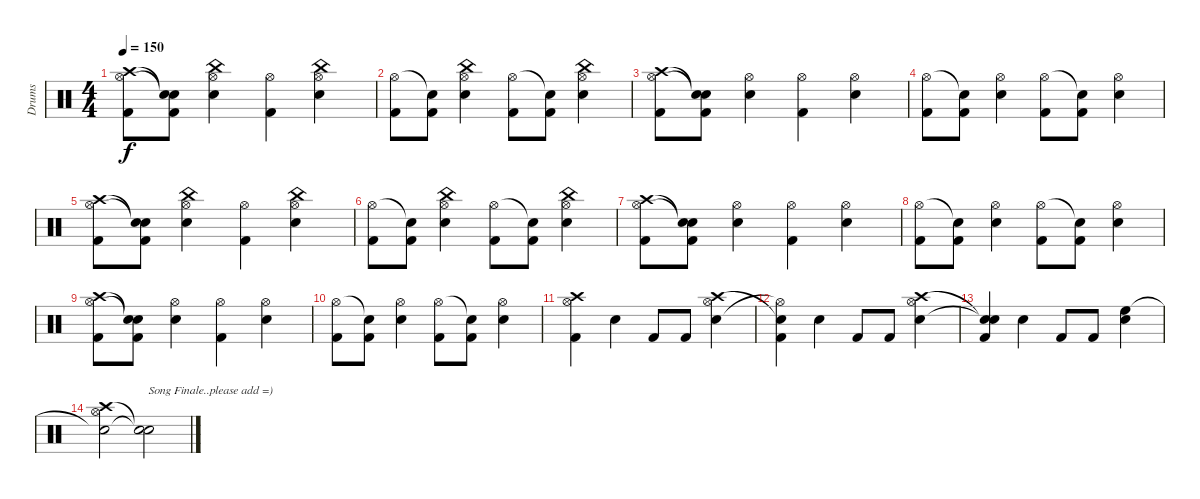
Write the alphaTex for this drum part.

\track ("Drums" "Drums") {instrument percussion}
\staff {score}
\articulation defaults
\ts (4 4)
\tempo 150
\clef neutral
\ks c
("Crash high (hit)" "Hi-Hat (open)" "Kick (hit) 2").8{dy f} ("Snare (hit)"{t} "Snare (hit)"{t} "Kick (hit) 2").8 ("Snare (hit) 2" "Hi-Hat (open)" "China (hit)").4 ("Hi-Hat (open)" "Kick (hit) 2").4 ("Snare (hit) 2" "Hi-Hat (open)" "China (hit)").4 |
("Hi-Hat (open)" "Kick (hit) 2").8 ("Snare (hit)"{t} "Kick (hit) 2").8 ("Snare (hit) 2" "Hi-Hat (open)" "China (hit)").4 ("Hi-Hat (open)" "Kick (hit) 2").8 ("Snare (hit)"{t} "Kick (hit) 2").8 ("Snare (hit) 2" "Hi-Hat (open)" "China (hit)").4 |
("Crash high (hit)" "Hi-Hat (open)" "Kick (hit) 2").8 ("Snare (hit)"{t} "Snare (hit)"{t} "Kick (hit) 2").8 ("Snare (hit) 2" "Hi-Hat (open)").4 ("Hi-Hat (open)" "Kick (hit) 2").4 ("Snare (hit) 2" "Hi-Hat (open)").4 |
("Hi-Hat (open)" "Kick (hit) 2").8 ("Snare (hit)"{t} "Kick (hit) 2").8 ("Snare (hit) 2" "Hi-Hat (open)").4 ("Hi-Hat (open)" "Kick (hit) 2").8 ("Snare (hit)"{t} "Kick (hit) 2").8 ("Snare (hit) 2" "Hi-Hat (open)").4 |
("Crash high (hit)" "Hi-Hat (open)" "Kick (hit) 2").8 ("Snare (hit)"{t} "Snare (hit)"{t} "Kick (hit) 2").8 ("Snare (hit) 2" "Hi-Hat (open)" "China (hit)").4 ("Hi-Hat (open)" "Kick (hit) 2").4 ("Snare (hit) 2" "Hi-Hat (open)" "China (hit)").4 |
("Hi-Hat (open)" "Kick (hit) 2").8 ("Snare (hit)"{t} "Kick (hit) 2").8 ("Snare (hit) 2" "Hi-Hat (open)" "China (hit)").4 ("Hi-Hat (open)" "Kick (hit) 2").8 ("Snare (hit)"{t} "Kick (hit) 2").8 ("Snare (hit) 2" "Hi-Hat (open)" "China (hit)").4 |
("Crash high (hit)" "Hi-Hat (open)" "Kick (hit) 2").8 ("Snare (hit)"{t} "Snare (hit)"{t} "Kick (hit) 2").8 ("Snare (hit) 2" "Hi-Hat (open)").4 ("Hi-Hat (open)" "Kick (hit) 2").4 ("Snare (hit) 2" "Hi-Hat (open)").4 |
("Hi-Hat (open)" "Kick (hit) 2").8 ("Snare (hit)"{t} "Kick (hit) 2").8 ("Snare (hit) 2" "Hi-Hat (open)").4 ("Hi-Hat (open)" "Kick (hit) 2").8 ("Snare (hit)"{t} "Kick (hit) 2").8 ("Snare (hit) 2" "Hi-Hat (open)").4 |
("Crash high (hit)" "Hi-Hat (open)" "Kick (hit) 2").8 ("Snare (hit)"{t} "Snare (hit)"{t} "Kick (hit) 2").8 ("Snare (hit) 2" "Hi-Hat (open)").4 ("Hi-Hat (open)" "Kick (hit) 2").4 ("Snare (hit) 2" "Hi-Hat (open)").4 |
("Hi-Hat (open)" "Kick (hit) 2").8 ("Snare (hit)"{t} "Kick (hit) 2").8 ("Snare (hit) 2" "Hi-Hat (open)").4 ("Hi-Hat (open)" "Kick (hit) 2").8 ("Snare (hit)"{t} "Kick (hit) 2").8 ("Snare (hit) 2" "Hi-Hat (open)").4 |
("Crash high (hit)" "Hi-Hat (open)" "Kick (hit) 2").4 "Snare (hit) 2".4 "Kick (hit) 2".8 "Kick (hit) 2".8 ("Crash high (hit)" "Snare (hit) 2" "Hi-Hat (open)").4 |
("Snare (hit)"{t} "Hi-Hat (open)"{t} "Kick (hit) 2").4 "Snare (hit) 2".4 "Kick (hit) 2".8 "Kick (hit) 2".8 ("Crash high (hit)" "Snare (hit) 2" "Hi-Hat (open)").4 |
("Snare (hit)"{t} "Snare (hit)"{t} "Kick (hit) 2").4 "Snare (hit) 2".4 "Kick (hit) 2".8 "Kick (hit) 2".8 ("Snare (hit) 2" "High Floor Tom (hit)").4 |
("Crash high (hit)" "Snare (hit) 2"{t} "Hi-Hat (open)").2 ("Snare (hit)"{t} "Snare (hit)"{t}).2{txt "Song Finale..please add =)"}
